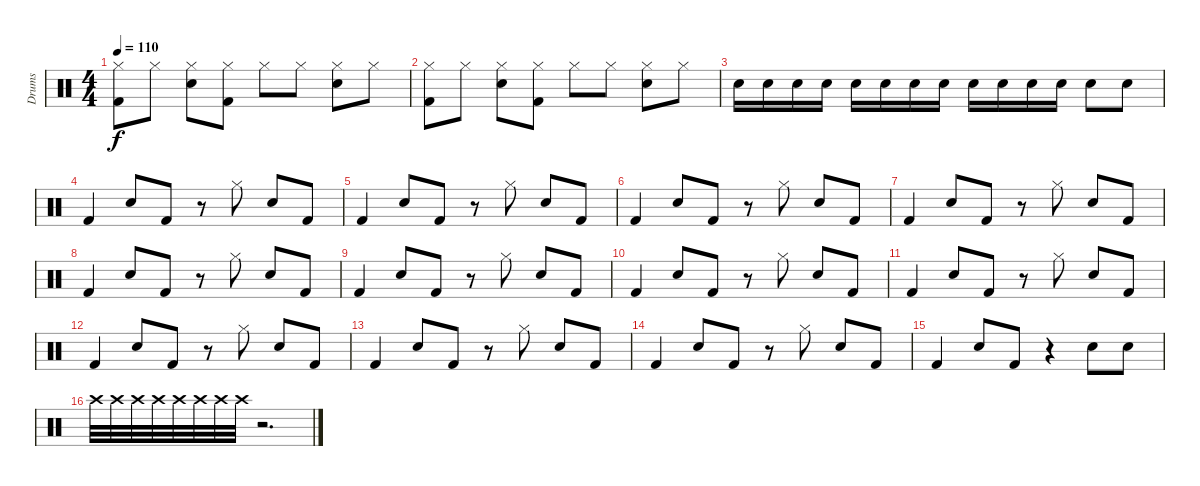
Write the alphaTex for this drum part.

\track ("Drums" "Drums") {instrument percussion}
\staff {score}
\articulation defaults
\ts (4 4)
\tempo 110
\clef neutral
\ks c
("Hi-Hat (closed)" "Kick (hit) 2").8{dy f} "Hi-Hat (closed)".8 ("Hi-Hat (closed)" "Snare (hit) 2").8 ("Hi-Hat (closed)" "Kick (hit) 2").8 "Hi-Hat (closed)".8 "Hi-Hat (closed)".8 ("Hi-Hat (closed)" "Snare (hit) 2").8 "Hi-Hat (closed)".8 |
("Hi-Hat (closed)" "Kick (hit) 2").8 "Hi-Hat (closed)".8 ("Hi-Hat (closed)" "Snare (hit) 2").8 ("Hi-Hat (closed)" "Kick (hit) 2").8 "Hi-Hat (closed)".8 "Hi-Hat (closed)".8 ("Hi-Hat (closed)" "Snare (hit) 2").8 "Hi-Hat (closed)".8 |
"Snare (hit) 2".16 "Snare (hit) 2".16 "Snare (hit) 2".16 "Snare (hit) 2".16 "Snare (hit) 2".16 "Snare (hit) 2".16 "Snare (hit) 2".16 "Snare (hit) 2".16 "Snare (hit) 2".16 "Snare (hit) 2".16 "Snare (hit) 2".16 "Snare (hit) 2".16 "Snare (hit) 2".8 "Snare (hit) 2".8 |
"Kick (hit) 2".4 "Snare (hit) 2".8 "Kick (hit) 2".8 r.8 "Hi-Hat (closed)".8 "Snare (hit) 2".8 "Kick (hit) 2".8 |
"Kick (hit) 2".4 "Snare (hit) 2".8 "Kick (hit) 2".8 r.8 "Hi-Hat (closed)".8 "Snare (hit) 2".8 "Kick (hit) 2".8 |
"Kick (hit) 2".4 "Snare (hit) 2".8 "Kick (hit) 2".8 r.8 "Hi-Hat (closed)".8 "Snare (hit) 2".8 "Kick (hit) 2".8 |
"Kick (hit) 2".4 "Snare (hit) 2".8 "Kick (hit) 2".8 r.8 "Hi-Hat (closed)".8 "Snare (hit) 2".8 "Kick (hit) 2".8 |
"Kick (hit) 2".4 "Snare (hit) 2".8 "Kick (hit) 2".8 r.8 "Hi-Hat (closed)".8 "Snare (hit) 2".8 "Kick (hit) 2".8 |
"Kick (hit) 2".4 "Snare (hit) 2".8 "Kick (hit) 2".8 r.8 "Hi-Hat (closed)".8 "Snare (hit) 2".8 "Kick (hit) 2".8 |
"Kick (hit) 2".4 "Snare (hit) 2".8 "Kick (hit) 2".8 r.8 "Hi-Hat (closed)".8 "Snare (hit) 2".8 "Kick (hit) 2".8 |
"Kick (hit) 2".4 "Snare (hit) 2".8 "Kick (hit) 2".8 r.8 "Hi-Hat (closed)".8 "Snare (hit) 2".8 "Kick (hit) 2".8 |
"Kick (hit) 2".4 "Snare (hit) 2".8 "Kick (hit) 2".8 r.8 "Hi-Hat (closed)".8 "Snare (hit) 2".8 "Kick (hit) 2".8 |
"Kick (hit) 2".4 "Snare (hit) 2".8 "Kick (hit) 2".8 r.8 "Hi-Hat (closed)".8 "Snare (hit) 2".8 "Kick (hit) 2".8 |
"Kick (hit) 2".4 "Snare (hit) 2".8 "Kick (hit) 2".8 r.8 "Hi-Hat (closed)".8 "Snare (hit) 2".8 "Kick (hit) 2".8 |
"Kick (hit) 2".4 "Snare (hit) 2".8 "Kick (hit) 2".8 r.4 "Snare (hit) 2".8 "Snare (hit) 2".8 |
"Crash high (hit)".32 "Crash high (hit)".32 "Crash high (hit)".32 "Crash high (hit)".32 "Crash high (hit)".32 "Crash high (hit)".32 "Crash high (hit)".32 "Crash high (hit)".32 r.2{d}
